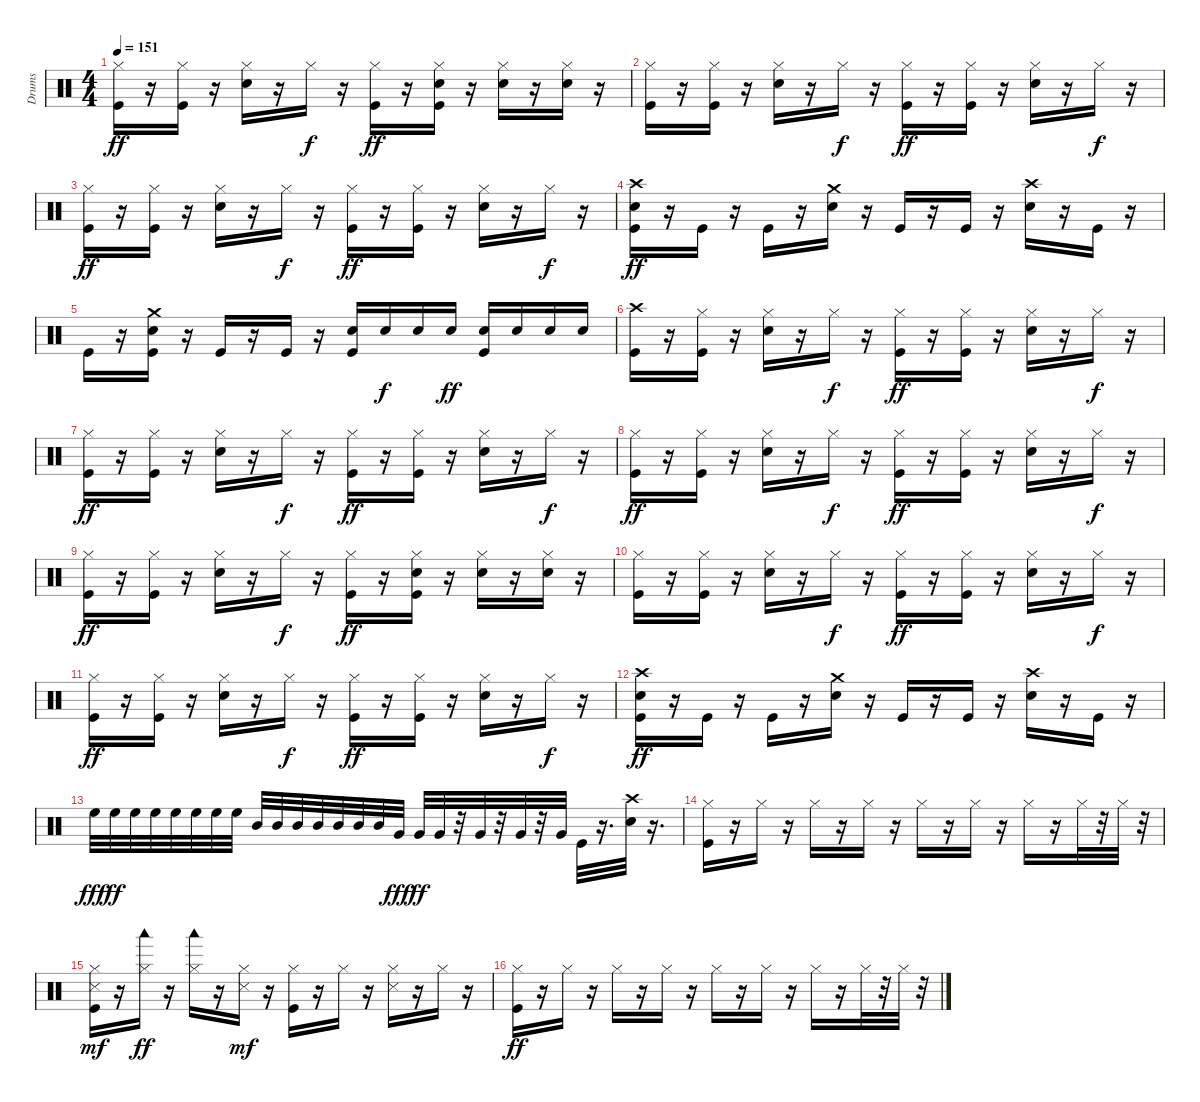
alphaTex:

\track ("Drums" "Drums") {instrument percussion}
\staff {score}
\articulation defaults
\ts (4 4)
\tempo 151
\clef neutral
\ks c
("Kick (hit)" "Hi-Hat (closed)").16{dy ff} r.16 ("Kick (hit)" "Hi-Hat (closed)").16 r.16 ("Snare (hit) 2" "Hi-Hat (closed)").16 r.16 "Hi-Hat (closed)".16{dy f} r.16 ("Kick (hit)" "Hi-Hat (closed)").16{dy ff} r.16 ("Kick (hit)" "Snare (hit) 2" "Hi-Hat (closed)").16 r.16 ("Snare (hit) 2" "Hi-Hat (closed)").16 r.16 ("Snare (hit) 2" "Hi-Hat (closed)").16 r.16 |
("Kick (hit)" "Hi-Hat (closed)").16 r.16 ("Kick (hit)" "Hi-Hat (closed)").16 r.16 ("Snare (hit) 2" "Hi-Hat (closed)").16 r.16 "Hi-Hat (closed)".16{dy f} r.16 ("Kick (hit)" "Hi-Hat (closed)").16{dy ff} r.16 ("Kick (hit)" "Hi-Hat (closed)").16 r.16 ("Snare (hit) 2" "Hi-Hat (closed)").16 r.16 "Hi-Hat (closed)".16{dy f} r.16 |
("Kick (hit)" "Hi-Hat (closed)").16{dy ff} r.16 ("Kick (hit)" "Hi-Hat (closed)").16 r.16 ("Snare (hit) 2" "Hi-Hat (closed)").16 r.16 "Hi-Hat (closed)".16{dy f} r.16 ("Kick (hit)" "Hi-Hat (closed)").16{dy ff} r.16 ("Kick (hit)" "Hi-Hat (closed)").16 r.16 ("Snare (hit) 2" "Hi-Hat (closed)").16 r.16 "Hi-Hat (closed)".16{dy f} r.16 |
("Kick (hit)" "Snare (hit) 2" "Crash high (hit)").16{dy ff} r.16 "Kick (hit)".16 r.16 "Kick (hit)".16 r.16 ("Snare (hit) 2" "Crash medium (hit)").16 r.16 "Kick (hit)".16 r.16 "Kick (hit)".16 r.16 ("Snare (hit) 2" "Crash high (hit)").16 r.16 "Kick (hit)".16 r.16 |
"Kick (hit)".16 r.16 ("Kick (hit)" "Snare (hit) 2" "Crash medium (hit)").16 r.16 "Kick (hit)".16 r.16 "Kick (hit)".16 r.16 ("Kick (hit)" "Snare (hit) 2").16 "Snare (hit) 2".16{dy f} "Snare (hit) 2".16 "Snare (hit) 2".16{dy ff} ("Kick (hit)" "Snare (hit) 2").16 "Snare (hit) 2".16 "Snare (hit) 2".16 "Snare (hit) 2".16 |
("Kick (hit)" "Crash high (hit)").16 r.16 ("Kick (hit)" "Hi-Hat (closed)").16 r.16 ("Snare (hit) 2" "Hi-Hat (closed)").16 r.16 "Hi-Hat (closed)".16{dy f} r.16 ("Kick (hit)" "Hi-Hat (closed)").16{dy ff} r.16 ("Kick (hit)" "Hi-Hat (closed)").16 r.16 ("Snare (hit) 2" "Hi-Hat (closed)").16 r.16 "Hi-Hat (closed)".16{dy f} r.16 |
("Kick (hit)" "Hi-Hat (closed)").16{dy ff} r.16 ("Kick (hit)" "Hi-Hat (closed)").16 r.16 ("Snare (hit) 2" "Hi-Hat (closed)").16 r.16 "Hi-Hat (closed)".16{dy f} r.16 ("Kick (hit)" "Hi-Hat (closed)").16{dy ff} r.16 ("Kick (hit)" "Hi-Hat (closed)").16 r.16 ("Snare (hit) 2" "Hi-Hat (closed)").16 r.16 "Hi-Hat (closed)".16{dy f} r.16 |
("Kick (hit)" "Hi-Hat (closed)").16{dy ff} r.16 ("Kick (hit)" "Hi-Hat (closed)").16 r.16 ("Snare (hit) 2" "Hi-Hat (closed)").16 r.16 "Hi-Hat (closed)".16{dy f} r.16 ("Kick (hit)" "Hi-Hat (closed)").16{dy ff} r.16 ("Kick (hit)" "Hi-Hat (closed)").16 r.16 ("Snare (hit) 2" "Hi-Hat (closed)").16 r.16 "Hi-Hat (closed)".16{dy f} r.16 |
("Kick (hit)" "Hi-Hat (closed)").16{dy ff} r.16 ("Kick (hit)" "Hi-Hat (closed)").16 r.16 ("Snare (hit) 2" "Hi-Hat (closed)").16 r.16 "Hi-Hat (closed)".16{dy f} r.16 ("Kick (hit)" "Hi-Hat (closed)").16{dy ff} r.16 ("Kick (hit)" "Snare (hit) 2" "Hi-Hat (closed)").16 r.16 ("Snare (hit) 2" "Hi-Hat (closed)").16 r.16 ("Snare (hit) 2" "Hi-Hat (closed)").16 r.16 |
("Kick (hit)" "Hi-Hat (closed)").16 r.16 ("Kick (hit)" "Hi-Hat (closed)").16 r.16 ("Snare (hit) 2" "Hi-Hat (closed)").16 r.16 "Hi-Hat (closed)".16{dy f} r.16 ("Kick (hit)" "Hi-Hat (closed)").16{dy ff} r.16 ("Kick (hit)" "Hi-Hat (closed)").16 r.16 ("Snare (hit) 2" "Hi-Hat (closed)").16 r.16 "Hi-Hat (closed)".16{dy f} r.16 |
("Kick (hit)" "Hi-Hat (closed)").16{dy ff} r.16 ("Kick (hit)" "Hi-Hat (closed)").16 r.16 ("Snare (hit) 2" "Hi-Hat (closed)").16 r.16 "Hi-Hat (closed)".16{dy f} r.16 ("Kick (hit)" "Hi-Hat (closed)").16{dy ff} r.16 ("Kick (hit)" "Hi-Hat (closed)").16 r.16 ("Snare (hit) 2" "Hi-Hat (closed)").16 r.16 "Hi-Hat (closed)".16{dy f} r.16 |
("Kick (hit)" "Snare (hit) 2" "Crash high (hit)").16{dy ff} r.16 "Kick (hit)".16 r.16 "Kick (hit)".16 r.16 ("Snare (hit) 2" "Crash medium (hit)").16 r.16 "Kick (hit)".16 r.16 "Kick (hit)".16 r.16 ("Snare (hit) 2" "Crash high (hit)").16 r.16 "Kick (hit)".16 r.16 |
"High Floor Tom (hit)".32{dy fff} "High Floor Tom (hit)".32{dy ff} "High Floor Tom (hit)".32 "High Floor Tom (hit)".32 "High Floor Tom (hit)".32 "High Floor Tom (hit)".32 "High Floor Tom (hit)".32 "High Floor Tom (hit)".32 "Mid Tom (hit)".32 "Mid Tom (hit)".32 "Mid Tom (hit)".32 "Mid Tom (hit)".32 "Mid Tom (hit)".32 "Mid Tom (hit)".32 "Mid Tom (hit)".32 "Very Low Tom (hit)".32{dy fff} "Very Low Tom (hit)".32{dy ff} "Very Low Tom (hit)".32 r.32 "Very Low Tom (hit)".32 r.32 "Very Low Tom (hit)".32 r.32 "Very Low Tom (hit)".32 "Kick (hit)".32 r.16{d} ("Snare (hit) 2" "Crash high (hit)").32 r.16{d} |
("Kick (hit)" "Hi-Hat (closed)").16 r.16 "Hi-Hat (closed)".16 r.16 "Hi-Hat (closed)".16 r.16 "Hi-Hat (closed)".16 r.16 "Hi-Hat (closed)".16 r.16 "Hi-Hat (closed)".16 r.16 "Hi-Hat (closed)".16 r.16 "Hi-Hat (closed)".32 r.32 "Hi-Hat (closed)".32 r.32 |
("Kick (hit)" "Snare (side stick) 3" "Hi-Hat (closed)").16{dy mf} r.16 ("Hi-Hat (closed)" "Woodblock low (hit)").16{dy ff} r.16 ("Hi-Hat (closed)" "Woodblock low (hit)").16 r.16 ("Snare (side stick) 3" "Hi-Hat (closed)").16{dy mf} r.16 ("Kick (hit)" "Hi-Hat (closed)").16 r.16 "Hi-Hat (closed)".16 r.16 ("Snare (side stick) 3" "Hi-Hat (closed)").16 r.16 "Hi-Hat (closed)".16 r.16 |
("Kick (hit)" "Hi-Hat (closed)").16{dy ff} r.16 "Hi-Hat (closed)".16 r.16 "Hi-Hat (closed)".16 r.16 "Hi-Hat (closed)".16 r.16 "Hi-Hat (closed)".16 r.16 "Hi-Hat (closed)".16 r.16 "Hi-Hat (closed)".16 r.16 "Hi-Hat (closed)".32 r.32 "Hi-Hat (closed)".32 r.32
